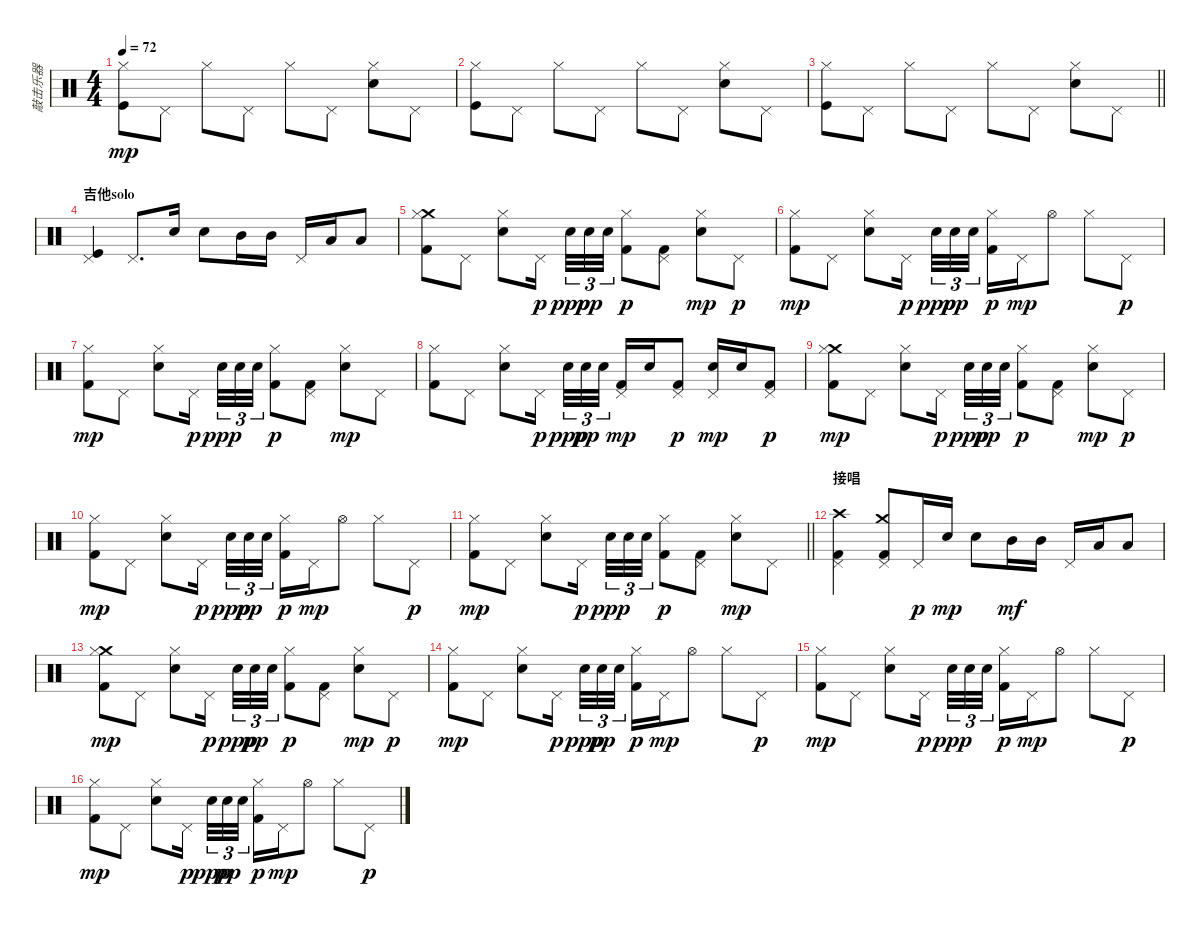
\track ("敲击乐器" "敲击乐器") {instrument percussion}
\staff {score}
\articulation defaults
\ts (4 4)
\tempo 72
\clef neutral
\ks c
("Hi-Hat (closed)" "Kick (hit)").8{dy mp} "Pedal Hi-Hat (hit)".8 "Hi-Hat (closed)".8 "Pedal Hi-Hat (hit)".8 "Hi-Hat (closed)".8 "Pedal Hi-Hat (hit)".8 ("Hi-Hat (closed)" "Electric Snare (hit)").8 "Pedal Hi-Hat (hit)".8 |
("Hi-Hat (closed)" "Kick (hit)").8 "Pedal Hi-Hat (hit)".8 "Hi-Hat (closed)".8 "Pedal Hi-Hat (hit)".8 "Hi-Hat (closed)".8 "Pedal Hi-Hat (hit)".8 ("Hi-Hat (closed)" "Electric Snare (hit)").8 "Pedal Hi-Hat (hit)".8 |
\barLineRight lightlight
("Hi-Hat (closed)" "Kick (hit)").8 "Pedal Hi-Hat (hit)".8 "Hi-Hat (closed)".8 "Pedal Hi-Hat (hit)".8 "Hi-Hat (closed)".8 "Pedal Hi-Hat (hit)".8 ("Hi-Hat (closed)" "Electric Snare (hit)").8 "Pedal Hi-Hat (hit)".8 |
\section ("" "吉他solo")
("Pedal Hi-Hat (hit)" "Kick (hit)").4 "Pedal Hi-Hat (hit)".8{d} "Electric Snare (hit)".16 "Electric Snare (hit)".8 "Mid Tom (hit)".16 "Mid Tom (hit)".16 "Pedal Hi-Hat (hit)".16 "Low Tom (hit)".16 "Low Tom (hit)".8 |
("Crash medium (hit)" "Hi-Hat (closed)" "Kick (hit) 2").8 "Pedal Hi-Hat (hit)".8 ("Hi-Hat (closed)" "Electric Snare (hit)").8 "Pedal Hi-Hat (hit)".16{dy p beam splitsecondary} "Electric Snare (hit)".32{tu (3 2) dy ppp} "Electric Snare (hit)".32{tu (3 2) dy pp} "Electric Snare (hit)".32{tu (3 2)} ("Hi-Hat (closed)" "Kick (hit) 2").8{dy p} ("Pedal Hi-Hat (hit)" "Kick (hit) 2").8 ("Hi-Hat (closed)" "Electric Snare (hit)").8{dy mp} "Pedal Hi-Hat (hit)".8{dy p} |
("Hi-Hat (closed)" "Kick (hit) 2").8{dy mp} "Pedal Hi-Hat (hit)".8 ("Hi-Hat (closed)" "Electric Snare (hit)").8 "Pedal Hi-Hat (hit)".16{dy p beam splitsecondary} "Electric Snare (hit)".32{tu (3 2) dy ppp} "Electric Snare (hit)".32{tu (3 2) dy pp} "Electric Snare (hit)".32{tu (3 2)} ("Hi-Hat (closed)" "Kick (hit) 2").16{dy p} "Pedal Hi-Hat (hit)".16{dy mp} "Hi-Hat (open)".8 "Hi-Hat (closed)".8 "Pedal Hi-Hat (hit)".8{dy p} |
("Hi-Hat (closed)" "Kick (hit) 2").8{dy mp} "Pedal Hi-Hat (hit)".8 ("Hi-Hat (closed)" "Electric Snare (hit)").8 "Pedal Hi-Hat (hit)".16{dy p beam splitsecondary} "Electric Snare (hit)".32{tu (3 2) dy ppp} "Electric Snare (hit)".32{tu (3 2)} "Electric Snare (hit)".32{tu (3 2)} ("Hi-Hat (closed)" "Kick (hit) 2").8{dy p} ("Pedal Hi-Hat (hit)" "Kick (hit) 2").8 ("Hi-Hat (closed)" "Electric Snare (hit)").8{dy mp} "Pedal Hi-Hat (hit)".8 |
("Hi-Hat (closed)" "Kick (hit) 2").8 "Pedal Hi-Hat (hit)".8 ("Hi-Hat (closed)" "Electric Snare (hit)").8 "Pedal Hi-Hat (hit)".16{dy p beam splitsecondary} "Electric Snare (hit)".32{tu (3 2) dy ppp} "Electric Snare (hit)".32{tu (3 2) dy pp} "Electric Snare (hit)".32{tu (3 2)} ("Pedal Hi-Hat (hit)" "Kick (hit) 2").16{dy mp} "Electric Snare (hit)".16 ("Pedal Hi-Hat (hit)" "Kick (hit) 2").8{dy p} ("Pedal Hi-Hat (hit)" "Electric Snare (hit)").16{dy mp} "Electric Snare (hit)".16 ("Pedal Hi-Hat (hit)" "Kick (hit) 2").8{dy p} |
("Crash medium (hit)" "Hi-Hat (closed)" "Kick (hit) 2").8{dy mp} "Pedal Hi-Hat (hit)".8 ("Hi-Hat (closed)" "Electric Snare (hit)").8 "Pedal Hi-Hat (hit)".16{dy p beam splitsecondary} "Electric Snare (hit)".32{tu (3 2) dy ppp} "Electric Snare (hit)".32{tu (3 2) dy pp} "Electric Snare (hit)".32{tu (3 2)} ("Hi-Hat (closed)" "Kick (hit) 2").8{dy p} ("Pedal Hi-Hat (hit)" "Kick (hit) 2").8 ("Hi-Hat (closed)" "Electric Snare (hit)").8{dy mp} "Pedal Hi-Hat (hit)".8{dy p} |
("Hi-Hat (closed)" "Kick (hit) 2").8{dy mp} "Pedal Hi-Hat (hit)".8 ("Hi-Hat (closed)" "Electric Snare (hit)").8 "Pedal Hi-Hat (hit)".16{dy p beam splitsecondary} "Electric Snare (hit)".32{tu (3 2) dy ppp} "Electric Snare (hit)".32{tu (3 2) dy pp} "Electric Snare (hit)".32{tu (3 2)} ("Hi-Hat (closed)" "Kick (hit) 2").16{dy p} "Pedal Hi-Hat (hit)".16{dy mp} "Hi-Hat (open)".8 "Hi-Hat (closed)".8 "Pedal Hi-Hat (hit)".8{dy p} |
\barLineRight lightlight
("Hi-Hat (closed)" "Kick (hit) 2").8{dy mp} "Pedal Hi-Hat (hit)".8 ("Hi-Hat (closed)" "Electric Snare (hit)").8 "Pedal Hi-Hat (hit)".16{dy p beam splitsecondary} "Electric Snare (hit)".32{tu (3 2) dy ppp} "Electric Snare (hit)".32{tu (3 2)} "Electric Snare (hit)".32{tu (3 2)} ("Hi-Hat (closed)" "Kick (hit) 2").8{dy p} ("Pedal Hi-Hat (hit)" "Kick (hit) 2").8 ("Hi-Hat (closed)" "Electric Snare (hit)").8{dy mp} "Pedal Hi-Hat (hit)".8 |
\section ("" "接唱")
("Crash high (hit)" "Pedal Hi-Hat (hit)" "Kick (hit) 2").4 ("Crash medium (hit)" "Pedal Hi-Hat (hit)" "Kick (hit) 2").8 "Pedal Hi-Hat (hit)".16{dy p} "Electric Snare (hit)".16{dy mp} "Electric Snare (hit)".8 "Mid Tom (hit)".16{dy mf} "Mid Tom (hit)".16 "Pedal Hi-Hat (hit)".16 "Low Tom (hit)".16 "Low Tom (hit)".8 |
("Crash medium (hit)" "Hi-Hat (closed)" "Kick (hit) 2").8{dy mp} "Pedal Hi-Hat (hit)".8 ("Hi-Hat (closed)" "Electric Snare (hit)").8 "Pedal Hi-Hat (hit)".16{dy p beam splitsecondary} "Electric Snare (hit)".32{tu (3 2) dy ppp} "Electric Snare (hit)".32{tu (3 2) dy pp} "Electric Snare (hit)".32{tu (3 2)} ("Hi-Hat (closed)" "Kick (hit) 2").8{dy p} ("Pedal Hi-Hat (hit)" "Kick (hit) 2").8 ("Hi-Hat (closed)" "Electric Snare (hit)").8{dy mp} "Pedal Hi-Hat (hit)".8{dy p} |
("Hi-Hat (closed)" "Kick (hit) 2").8{dy mp} "Pedal Hi-Hat (hit)".8 ("Hi-Hat (closed)" "Electric Snare (hit)").8 "Pedal Hi-Hat (hit)".16{dy p beam splitsecondary} "Electric Snare (hit)".32{tu (3 2) dy ppp} "Electric Snare (hit)".32{tu (3 2) dy pp} "Electric Snare (hit)".32{tu (3 2)} ("Hi-Hat (closed)" "Kick (hit) 2").16{dy p} "Pedal Hi-Hat (hit)".16{dy mp} "Hi-Hat (open)".8 "Hi-Hat (closed)".8 "Pedal Hi-Hat (hit)".8{dy p} |
("Hi-Hat (closed)" "Kick (hit) 2").8{dy mp} "Pedal Hi-Hat (hit)".8 ("Hi-Hat (closed)" "Electric Snare (hit)").8 "Pedal Hi-Hat (hit)".16{dy p beam splitsecondary} "Electric Snare (hit)".32{tu (3 2) dy ppp} "Electric Snare (hit)".32{tu (3 2)} "Electric Snare (hit)".32{tu (3 2)} ("Hi-Hat (closed)" "Kick (hit) 2").16{dy p} "Pedal Hi-Hat (hit)".16{dy mp} "Hi-Hat (open)".8 "Hi-Hat (closed)".8 "Pedal Hi-Hat (hit)".8{dy p} |
("Hi-Hat (closed)" "Kick (hit) 2").8{dy mp} "Pedal Hi-Hat (hit)".8 ("Hi-Hat (closed)" "Electric Snare (hit)").8 "Pedal Hi-Hat (hit)".16{dy p beam splitsecondary} "Electric Snare (hit)".32{tu (3 2) dy ppp} "Electric Snare (hit)".32{tu (3 2) dy pp} "Electric Snare (hit)".32{tu (3 2)} ("Hi-Hat (closed)" "Kick (hit) 2").16{dy p} "Pedal Hi-Hat (hit)".16{dy mp} "Hi-Hat (open)".8 "Hi-Hat (closed)".8 "Pedal Hi-Hat (hit)".8{dy p}
